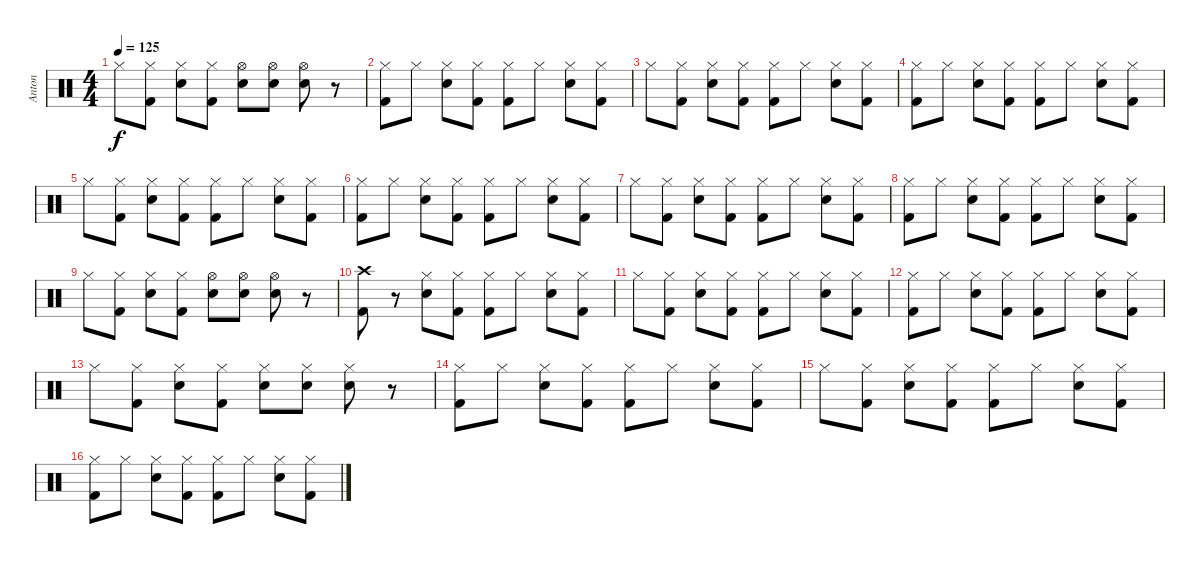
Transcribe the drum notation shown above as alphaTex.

\track ("Anton" "Anton") {instrument percussion}
\staff {score}
\articulation defaults
\ts (4 4)
\tempo 125
\clef neutral
\ks c "Hi-Hat (closed)".8{dy f}
("Kick (hit) 2" "Hi-Hat (closed)").8 ("Electric Snare (hit)" "Hi-Hat (closed)").8 ("Kick (hit) 2" "Hi-Hat (closed)").8 ("Electric Snare (hit)" "Hi-Hat (open)").8 ("Electric Snare (hit)" "Hi-Hat (open)").8 ("Electric Snare (hit)" "Hi-Hat (open)").8 r.8 |
("Kick (hit) 2" "Hi-Hat (closed)").8 "Hi-Hat (closed)".8 ("Electric Snare (hit)" "Hi-Hat (closed)").8 ("Kick (hit) 2" "Hi-Hat (closed)").8 ("Kick (hit) 2" "Hi-Hat (closed)").8 "Hi-Hat (closed)".8 ("Electric Snare (hit)" "Hi-Hat (closed)").8 ("Kick (hit) 2" "Hi-Hat (closed)").8 |
"Hi-Hat (closed)".8 ("Kick (hit) 2" "Hi-Hat (closed)").8 ("Electric Snare (hit)" "Hi-Hat (closed)").8 ("Kick (hit) 2" "Hi-Hat (closed)").8 ("Kick (hit) 2" "Hi-Hat (closed)").8 "Hi-Hat (closed)".8 ("Electric Snare (hit)" "Hi-Hat (closed)").8 ("Kick (hit) 2" "Hi-Hat (closed)").8 |
("Kick (hit) 2" "Hi-Hat (closed)").8 "Hi-Hat (closed)".8 ("Electric Snare (hit)" "Hi-Hat (closed)").8 ("Kick (hit) 2" "Hi-Hat (closed)").8 ("Kick (hit) 2" "Hi-Hat (closed)").8 "Hi-Hat (closed)".8 ("Electric Snare (hit)" "Hi-Hat (closed)").8 ("Kick (hit) 2" "Hi-Hat (closed)").8 |
"Hi-Hat (closed)".8 ("Kick (hit) 2" "Hi-Hat (closed)").8 ("Electric Snare (hit)" "Hi-Hat (closed)").8 ("Kick (hit) 2" "Hi-Hat (closed)").8 ("Kick (hit) 2" "Hi-Hat (closed)").8 "Hi-Hat (closed)".8 ("Electric Snare (hit)" "Hi-Hat (closed)").8 ("Kick (hit) 2" "Hi-Hat (closed)").8 |
("Kick (hit) 2" "Hi-Hat (closed)").8 "Hi-Hat (closed)".8 ("Electric Snare (hit)" "Hi-Hat (closed)").8 ("Kick (hit) 2" "Hi-Hat (closed)").8 ("Kick (hit) 2" "Hi-Hat (closed)").8 "Hi-Hat (closed)".8 ("Electric Snare (hit)" "Hi-Hat (closed)").8 ("Kick (hit) 2" "Hi-Hat (closed)").8 |
"Hi-Hat (closed)".8 ("Kick (hit) 2" "Hi-Hat (closed)").8 ("Electric Snare (hit)" "Hi-Hat (closed)").8 ("Kick (hit) 2" "Hi-Hat (closed)").8 ("Kick (hit) 2" "Hi-Hat (closed)").8 "Hi-Hat (closed)".8 ("Electric Snare (hit)" "Hi-Hat (closed)").8 ("Kick (hit) 2" "Hi-Hat (closed)").8 |
("Kick (hit) 2" "Hi-Hat (closed)").8 "Hi-Hat (closed)".8 ("Electric Snare (hit)" "Hi-Hat (closed)").8 ("Kick (hit) 2" "Hi-Hat (closed)").8 ("Kick (hit) 2" "Hi-Hat (closed)").8 "Hi-Hat (closed)".8 ("Electric Snare (hit)" "Hi-Hat (closed)").8 ("Kick (hit) 2" "Hi-Hat (closed)").8 |
"Hi-Hat (closed)".8 ("Kick (hit) 2" "Hi-Hat (closed)").8 ("Electric Snare (hit)" "Hi-Hat (closed)").8 ("Kick (hit) 2" "Hi-Hat (closed)").8 ("Electric Snare (hit)" "Hi-Hat (open)").8 ("Electric Snare (hit)" "Hi-Hat (open)").8 ("Electric Snare (hit)" "Hi-Hat (open)").8 r.8 |
("Kick (hit) 2" "Crash high (hit)").8 r.8 ("Electric Snare (hit)" "Hi-Hat (closed)").8 ("Kick (hit) 2" "Hi-Hat (closed)").8 ("Kick (hit) 2" "Hi-Hat (closed)").8 "Hi-Hat (closed)".8 ("Electric Snare (hit)" "Hi-Hat (closed)").8 ("Kick (hit) 2" "Hi-Hat (closed)").8 |
"Hi-Hat (closed)".8 ("Kick (hit) 2" "Hi-Hat (closed)").8 ("Electric Snare (hit)" "Hi-Hat (closed)").8 ("Kick (hit) 2" "Hi-Hat (closed)").8 ("Kick (hit) 2" "Hi-Hat (closed)").8 "Hi-Hat (closed)".8 ("Electric Snare (hit)" "Hi-Hat (closed)").8 ("Kick (hit) 2" "Hi-Hat (closed)").8 |
("Kick (hit) 2" "Hi-Hat (closed)").8 "Hi-Hat (closed)".8 ("Electric Snare (hit)" "Hi-Hat (closed)").8 ("Kick (hit) 2" "Hi-Hat (closed)").8 ("Kick (hit) 2" "Hi-Hat (closed)").8 "Hi-Hat (closed)".8 ("Electric Snare (hit)" "Hi-Hat (closed)").8 ("Kick (hit) 2" "Hi-Hat (closed)").8 |
"Hi-Hat (closed)".8 ("Kick (hit) 2" "Hi-Hat (closed)").8 ("Electric Snare (hit)" "Hi-Hat (closed)").8 ("Kick (hit) 2" "Hi-Hat (closed)").8 ("Electric Snare (hit)" "Hi-Hat (closed)").8 ("Electric Snare (hit)" "Hi-Hat (closed)").8 ("Electric Snare (hit)" "Hi-Hat (closed)").8 r.8 |
("Kick (hit) 2" "Hi-Hat (closed)").8 "Hi-Hat (closed)".8 ("Electric Snare (hit)" "Hi-Hat (closed)").8 ("Kick (hit) 2" "Hi-Hat (closed)").8 ("Kick (hit) 2" "Hi-Hat (closed)").8 "Hi-Hat (closed)".8 ("Electric Snare (hit)" "Hi-Hat (closed)").8 ("Kick (hit) 2" "Hi-Hat (closed)").8 |
"Hi-Hat (closed)".8 ("Kick (hit) 2" "Hi-Hat (closed)").8 ("Electric Snare (hit)" "Hi-Hat (closed)").8 ("Kick (hit) 2" "Hi-Hat (closed)").8 ("Kick (hit) 2" "Hi-Hat (closed)").8 "Hi-Hat (closed)".8 ("Electric Snare (hit)" "Hi-Hat (closed)").8 ("Kick (hit) 2" "Hi-Hat (closed)").8 |
("Kick (hit) 2" "Hi-Hat (closed)").8 "Hi-Hat (closed)".8 ("Electric Snare (hit)" "Hi-Hat (closed)").8 ("Kick (hit) 2" "Hi-Hat (closed)").8 ("Kick (hit) 2" "Hi-Hat (closed)").8 "Hi-Hat (closed)".8 ("Electric Snare (hit)" "Hi-Hat (closed)").8 ("Kick (hit) 2" "Hi-Hat (closed)").8
